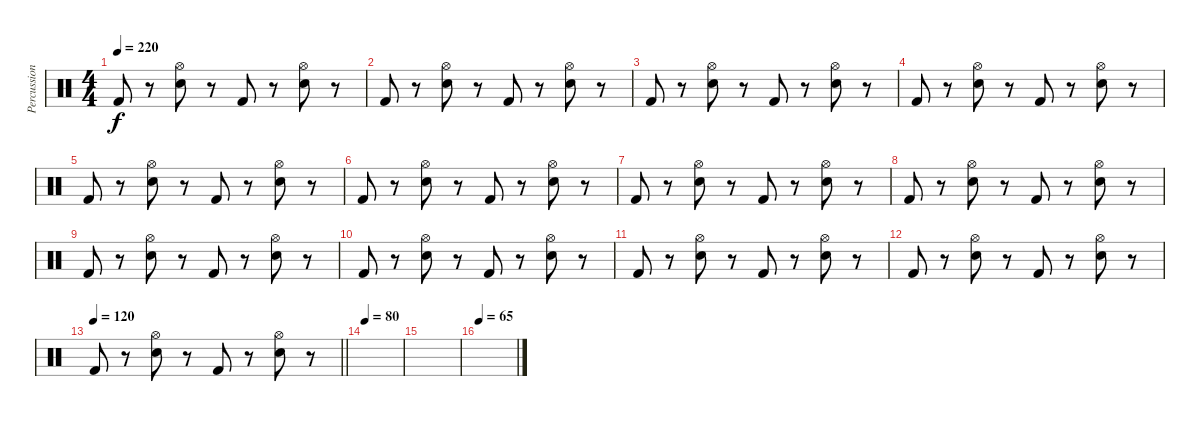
\track ("Percussion" "Percussion") {instrument percussion}
\staff {score}
\articulation defaults
\ts (4 4)
\tempo 220
\clef neutral
\ks c "Kick (hit) 2".8{dy f}
r.8 ("Hi-Hat (open)" "Snare (hit) 2").8 r.8 "Kick (hit) 2".8 r.8 ("Hi-Hat (open)" "Snare (hit) 2").8 r.8 |
"Kick (hit) 2".8 r.8 ("Hi-Hat (open)" "Snare (hit) 2").8 r.8 "Kick (hit) 2".8 r.8 ("Hi-Hat (open)" "Snare (hit) 2").8 r.8 |
"Kick (hit) 2".8 r.8 ("Hi-Hat (open)" "Snare (hit) 2").8 r.8 "Kick (hit) 2".8 r.8 ("Hi-Hat (open)" "Snare (hit) 2").8 r.8 |
"Kick (hit) 2".8 r.8 ("Hi-Hat (open)" "Snare (hit) 2").8 r.8 "Kick (hit) 2".8 r.8 ("Hi-Hat (open)" "Snare (hit) 2").8 r.8 |
"Kick (hit) 2".8 r.8 ("Hi-Hat (open)" "Snare (hit) 2").8 r.8 "Kick (hit) 2".8 r.8 ("Hi-Hat (open)" "Snare (hit) 2").8 r.8 |
"Kick (hit) 2".8 r.8 ("Hi-Hat (open)" "Snare (hit) 2").8 r.8 "Kick (hit) 2".8 r.8 ("Hi-Hat (open)" "Snare (hit) 2").8 r.8 |
"Kick (hit) 2".8 r.8 ("Hi-Hat (open)" "Snare (hit) 2").8 r.8 "Kick (hit) 2".8 r.8 ("Hi-Hat (open)" "Snare (hit) 2").8 r.8 |
"Kick (hit) 2".8 r.8 ("Hi-Hat (open)" "Snare (hit) 2").8 r.8 "Kick (hit) 2".8 r.8 ("Hi-Hat (open)" "Snare (hit) 2").8 r.8 |
"Kick (hit) 2".8 r.8 ("Hi-Hat (open)" "Snare (hit) 2").8 r.8 "Kick (hit) 2".8 r.8 ("Hi-Hat (open)" "Snare (hit) 2").8 r.8 |
"Kick (hit) 2".8 r.8 ("Hi-Hat (open)" "Snare (hit) 2").8 r.8 "Kick (hit) 2".8 r.8 ("Hi-Hat (open)" "Snare (hit) 2").8 r.8 |
"Kick (hit) 2".8 r.8 ("Hi-Hat (open)" "Snare (hit) 2").8 r.8 "Kick (hit) 2".8 r.8 ("Hi-Hat (open)" "Snare (hit) 2").8 r.8 |
"Kick (hit) 2".8 r.8 ("Hi-Hat (open)" "Snare (hit) 2").8 r.8 "Kick (hit) 2".8 r.8 ("Hi-Hat (open)" "Snare (hit) 2").8 r.8 |
\tempo 120
\barLineRight lightlight "Kick (hit) 2".8
r.8 ("Hi-Hat (open)" "Snare (hit) 2").8 r.8 "Kick (hit) 2".8 r.8 ("Hi-Hat (open)" "Snare (hit) 2").8 r.8 |
\tempo 80
|
|
\tempo 65
